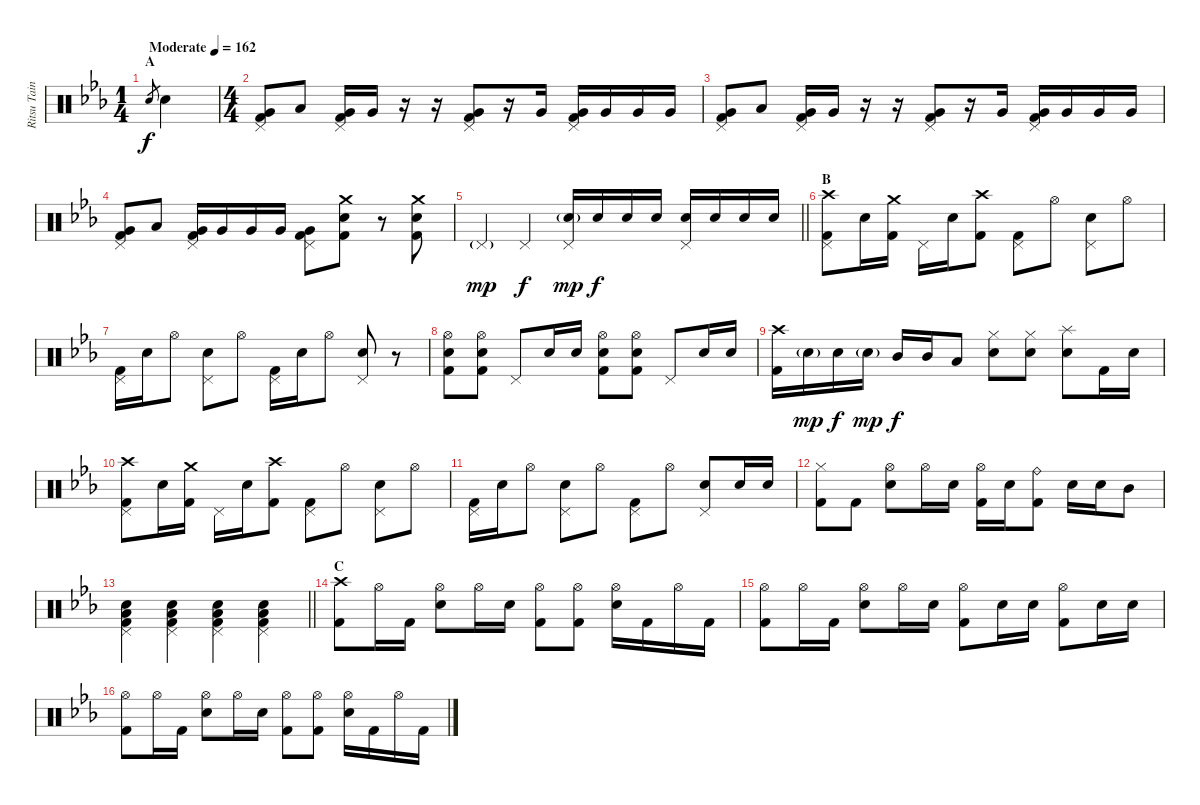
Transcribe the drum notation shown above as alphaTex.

\track ("Ritsu Tainaka" "Ritsu Tain") {instrument percussion}
\staff {score}
\articulation defaults
\ts (1 4)
\section ("" "A")
\tempo (162 "Moderate")
\clef neutral
\ks eb "Electric Snare (hit)".8{gr dy f} "Electric Snare (hit)".4
|
\ts (4 4)
("Pedal Hi-Hat (hit)" "Very Low Tom (hit)" "Kick (hit) 2").8 "Low Tom (hit)".8 ("Pedal Hi-Hat (hit)" "Very Low Tom (hit)" "Kick (hit) 2").16 "Very Low Tom (hit)".16 r.16 r.16 ("Pedal Hi-Hat (hit)" "Very Low Tom (hit)" "Kick (hit) 2").8 r.16 "Very Low Tom (hit)".16 ("Pedal Hi-Hat (hit)" "Very Low Tom (hit)" "Kick (hit) 2").16 "Very Low Tom (hit)".16 "Very Low Tom (hit)".16 "Very Low Tom (hit)".16 |
("Pedal Hi-Hat (hit)" "Very Low Tom (hit)" "Kick (hit) 2").8 "Low Tom (hit)".8 ("Pedal Hi-Hat (hit)" "Very Low Tom (hit)" "Kick (hit) 2").16 "Very Low Tom (hit)".16 r.16 r.16 ("Pedal Hi-Hat (hit)" "Very Low Tom (hit)" "Kick (hit) 2").8 r.16 "Very Low Tom (hit)".16 ("Pedal Hi-Hat (hit)" "Very Low Tom (hit)" "Kick (hit) 2").16 "Very Low Tom (hit)".16 "Very Low Tom (hit)".16 "Very Low Tom (hit)".16 |
("Pedal Hi-Hat (hit)" "Very Low Tom (hit)" "Kick (hit) 2").8 "Low Tom (hit)".8 ("Pedal Hi-Hat (hit)" "Very Low Tom (hit)" "Kick (hit) 2").16 "Very Low Tom (hit)".16 "Very Low Tom (hit)".16 "Very Low Tom (hit)".16 ("Pedal Hi-Hat (hit)" "Very Low Tom (hit)" "Kick (hit) 2").8 ("Crash medium (hit)" "Electric Snare (hit)" "Kick (hit) 2").8 r.8 ("Crash medium (hit)" "Electric Snare (hit)" "Kick (hit) 2").8 |
\barLineRight lightlight "Pedal Hi-Hat (hit)"{g}.4{dy mp} "Pedal Hi-Hat (hit)".4{dy f}
("Pedal Hi-Hat (hit)" "Electric Snare (hit)"{g}).16{dy mp} "Electric Snare (hit)".16{dy f} "Electric Snare (hit)".16 "Electric Snare (hit)".16 ("Pedal Hi-Hat (hit)" "Electric Snare (hit)").16 "Electric Snare (hit)".16 "Electric Snare (hit)".16 "Electric Snare (hit)".16 |
\section ("" "B")
("Crash high (hit)" "Pedal Hi-Hat (hit)" "Kick (hit) 2").8 "Electric Snare (hit)".16 ("Crash medium (hit)" "Kick (hit) 2").16 "Pedal Hi-Hat (hit)".16 "Electric Snare (hit)".16 ("Crash high (hit)" "Kick (hit) 2").8 ("Pedal Hi-Hat (hit)" "Kick (hit) 2").8 "Hi-Hat (open)".8 ("Pedal Hi-Hat (hit)" "Electric Snare (hit)").8 "Hi-Hat (open)".8 |
("Pedal Hi-Hat (hit)" "Kick (hit) 2").16 "Electric Snare (hit)".16 "Hi-Hat (open)".8 ("Pedal Hi-Hat (hit)" "Electric Snare (hit)").8 "Hi-Hat (open)".8 ("Pedal Hi-Hat (hit)" "Kick (hit) 2").16 "Electric Snare (hit)".16 "Hi-Hat (open)".8 ("Pedal Hi-Hat (hit)" "Electric Snare (hit)").8 r.8 |
("Hi-Hat (open)" "Electric Snare (hit)" "Kick (hit) 2").8 ("Hi-Hat (open)" "Electric Snare (hit)" "Kick (hit) 2").8 "Pedal Hi-Hat (hit)".8 "Electric Snare (hit)".16 "Electric Snare (hit)".16 ("Hi-Hat (open)" "Electric Snare (hit)" "Kick (hit) 2").8 ("Hi-Hat (open)" "Electric Snare (hit)" "Kick (hit) 2").8 "Pedal Hi-Hat (hit)".8 "Electric Snare (hit)".16 "Electric Snare (hit)".16 |
("Crash high (hit)" "Kick (hit) 2").16 "Electric Snare (hit)"{g}.16{dy mp} "Electric Snare (hit)".16{dy f} "Electric Snare (hit)"{g}.16{dy mp} "Mid Tom (hit)".16{dy f} "Mid Tom (hit)".16 "Low Tom (hit)".8 ("Hi-Hat (closed)" "Electric Snare (hit)").8 ("Hi-Hat (closed)" "Electric Snare (hit)").8 ("Splash (hit)" "Electric Snare (hit)").8 "Kick (hit) 2".16 "Electric Snare (hit)".16 |
("Crash high (hit)" "Pedal Hi-Hat (hit)" "Kick (hit) 2").8 "Electric Snare (hit)".16 ("Crash medium (hit)" "Kick (hit) 2").16 "Pedal Hi-Hat (hit)".16 "Electric Snare (hit)".16 ("Crash high (hit)" "Kick (hit) 2").8 ("Pedal Hi-Hat (hit)" "Kick (hit) 2").8 "Hi-Hat (open)".8 ("Pedal Hi-Hat (hit)" "Electric Snare (hit)").8 "Hi-Hat (open)".8 |
("Pedal Hi-Hat (hit)" "Kick (hit) 2").16 "Electric Snare (hit)".16 "Hi-Hat (open)".8 ("Pedal Hi-Hat (hit)" "Electric Snare (hit)").8 "Hi-Hat (open)".8 ("Pedal Hi-Hat (hit)" "Kick (hit) 2").8 "Hi-Hat (open)".8 ("Pedal Hi-Hat (hit)" "Electric Snare (hit)").8 "Electric Snare (hit)".16 "Electric Snare (hit)".16 |
("Hi-Hat (closed)" "Kick (hit) 2").8 "Kick (hit) 2".8 ("Hi-Hat (open)" "Electric Snare (hit)").8 "Hi-Hat (open)".16 "Electric Snare (hit)".16 ("Hi-Hat (open)" "Kick (hit) 2").16 "Electric Snare (hit)".16 ("Ride (bell)" "Kick (hit) 2").8 "Electric Snare (hit)".16 "Electric Snare (hit)".16 "Mid Tom (hit)".8 |
\barLineRight lightlight
("Pedal Hi-Hat (hit)" "Electric Snare (hit)" "Low Floor Tom (hit)" "Kick (hit) 2").4 ("Pedal Hi-Hat (hit)" "Electric Snare (hit)" "Low Floor Tom (hit)" "Kick (hit) 2").4 ("Pedal Hi-Hat (hit)" "Electric Snare (hit)" "Low Floor Tom (hit)" "Kick (hit) 2").4 ("Pedal Hi-Hat (hit)" "Electric Snare (hit)" "Low Floor Tom (hit)" "Kick (hit) 2").4 |
\section ("" "C")
("Crash high (hit)" "Kick (hit) 2").8 "Hi-Hat (open)".16 "Kick (hit) 2".16 ("Hi-Hat (open)" "Electric Snare (hit)").8 "Hi-Hat (open)".16 "Electric Snare (hit)".16 ("Hi-Hat (open)" "Kick (hit) 2").8 ("Hi-Hat (open)" "Kick (hit) 2").8 ("Hi-Hat (open)" "Electric Snare (hit)").16 "Kick (hit) 2".16 "Hi-Hat (open)".16 "Kick (hit) 2".16 |
("Hi-Hat (open)" "Kick (hit) 2").8 "Hi-Hat (open)".16 "Kick (hit) 2".16 ("Hi-Hat (open)" "Electric Snare (hit)").8 "Hi-Hat (open)".16 "Electric Snare (hit)".16 ("Hi-Hat (open)" "Kick (hit) 2").8 "Electric Snare (hit)".16 "Electric Snare (hit)".16 ("Hi-Hat (open)" "Kick (hit) 2").8 "Electric Snare (hit)".16 "Electric Snare (hit)".16 |
("Hi-Hat (open)" "Kick (hit) 2").8 "Hi-Hat (open)".16 "Kick (hit) 2".16 ("Hi-Hat (open)" "Electric Snare (hit)").8 "Hi-Hat (open)".16 "Electric Snare (hit)".16 ("Hi-Hat (open)" "Kick (hit) 2").8 ("Hi-Hat (open)" "Kick (hit) 2").8 ("Hi-Hat (open)" "Electric Snare (hit)").16 "Kick (hit) 2".16 "Hi-Hat (open)".16 "Kick (hit) 2".16
